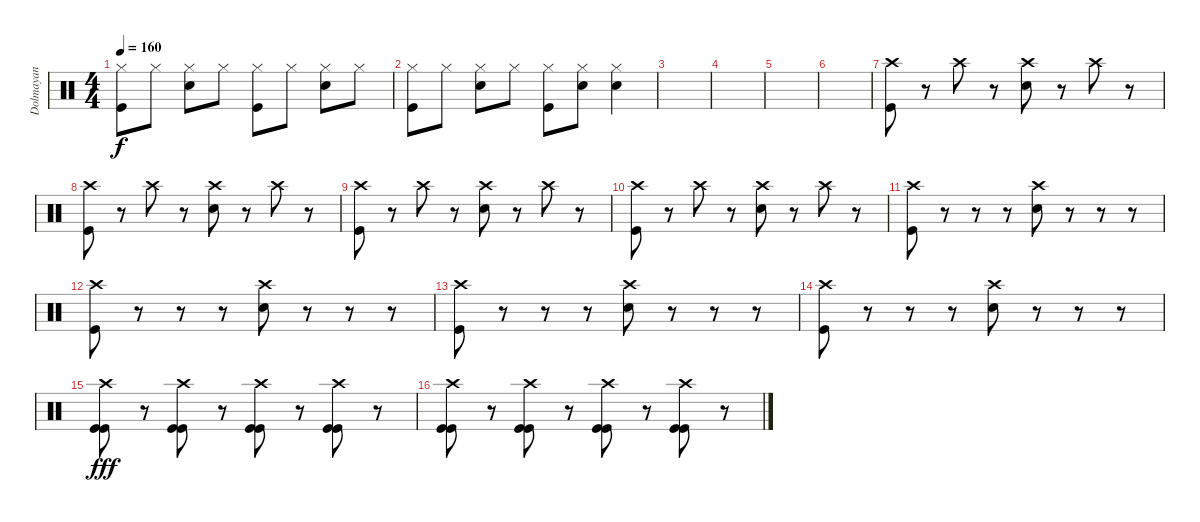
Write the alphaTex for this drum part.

\track ("Dolmayan" "Dolmayan") {instrument percussion}
\staff {score}
\articulation defaults
\ts (4 4)
\tempo 160
\clef neutral
\ks c
("Hi-Hat (closed)" "Kick (hit)").8{dy f} "Hi-Hat (closed)".8 ("Hi-Hat (closed)" "Electric Snare (hit)").8 "Hi-Hat (closed)".8 ("Hi-Hat (closed)" "Kick (hit)").8 "Hi-Hat (closed)".8 ("Hi-Hat (closed)" "Electric Snare (hit)").8 "Hi-Hat (closed)".8 |
("Hi-Hat (closed)" "Kick (hit)").8 "Hi-Hat (closed)".8 ("Hi-Hat (closed)" "Electric Snare (hit)").8 "Hi-Hat (closed)".8 ("Hi-Hat (closed)" "Kick (hit)").8 ("Hi-Hat (closed)" "Electric Snare (hit)").8 ("Hi-Hat (closed)" "Snare (hit) 2").4 |
|
|
|
|
("Crash high (hit)" "Kick (hit)").8 r.8 "Crash high (hit)".8 r.8 ("Crash high (hit)" "Electric Snare (hit)").8 r.8 "Crash high (hit)".8 r.8 |
("Crash high (hit)" "Kick (hit)").8 r.8 "Crash high (hit)".8 r.8 ("Crash high (hit)" "Electric Snare (hit)").8 r.8 "Crash high (hit)".8 r.8 |
("Crash high (hit)" "Kick (hit)").8 r.8 "Crash high (hit)".8 r.8 ("Crash high (hit)" "Electric Snare (hit)").8 r.8 "Crash high (hit)".8 r.8 |
("Crash high (hit)" "Kick (hit)").8 r.8 "Crash high (hit)".8 r.8 ("Crash high (hit)" "Electric Snare (hit)").8 r.8 "Crash high (hit)".8 r.8 |
("Crash high (hit)" "Kick (hit)").8 r.8 r.8 r.8 ("Crash high (hit)" "Electric Snare (hit)").8 r.8 r.8 r.8 |
("Crash high (hit)" "Kick (hit)").8 r.8 r.8 r.8 ("Crash high (hit)" "Electric Snare (hit)").8 r.8 r.8 r.8 |
("Crash high (hit)" "Kick (hit)").8 r.8 r.8 r.8 ("Crash high (hit)" "Electric Snare (hit)").8 r.8 r.8 r.8 |
("Crash high (hit)" "Kick (hit)").8 r.8 r.8 r.8 ("Crash high (hit)" "Electric Snare (hit)").8 r.8 r.8 r.8 |
("Crash high (hit)" "Kick (hit)" "Kick (hit)").8{dy fff} r.8 ("Crash high (hit)" "Kick (hit)" "Kick (hit)").8 r.8 ("Crash high (hit)" "Kick (hit)" "Kick (hit)").8 r.8 ("Crash high (hit)" "Kick (hit)" "Kick (hit)").8 r.8 |
("Crash high (hit)" "Kick (hit)" "Kick (hit)").8 r.8 ("Crash high (hit)" "Kick (hit)" "Kick (hit)").8 r.8 ("Crash high (hit)" "Kick (hit)" "Kick (hit)").8 r.8 ("Crash high (hit)" "Kick (hit)" "Kick (hit)").8 r.8
